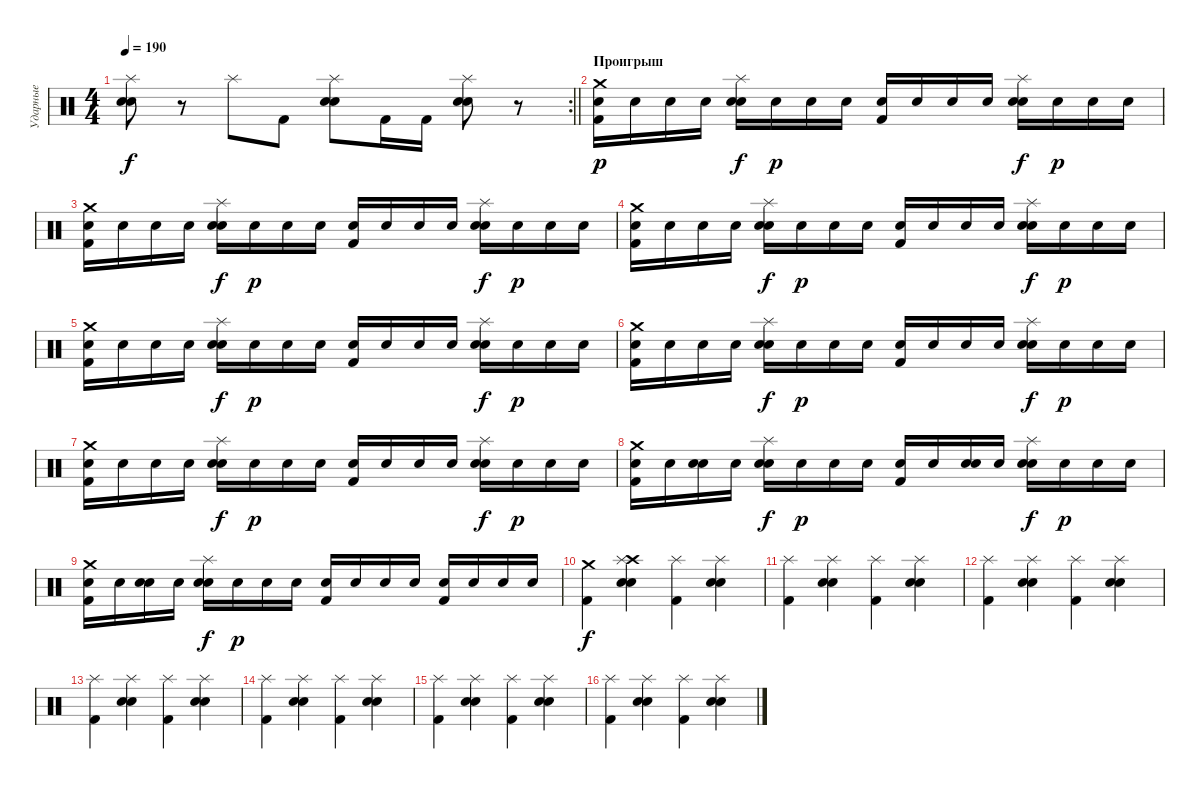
\track ("Ударные" "Ударные") {instrument percussion}
\staff {score}
\articulation defaults
\rc 2
\ts (4 4)
\tempo 190
\clef neutral
\barLineRight lightlight
\ks c
("Splash (hit)" "Electric Snare (hit)" "Snare (hit) 2").8{dy f} r.8 "Splash (hit)".8 "Kick (hit) 2".8 ("Splash (hit)" "Electric Snare (hit)" "Snare (hit) 2").8 "Kick (hit) 2".16 "Kick (hit) 2".16 ("Splash (hit)" "Electric Snare (hit)" "Snare (hit) 2").8 r.8 |
\section ("" "Проигрыш")
("Crash medium (hit)" "Electric Snare (hit)" "Kick (hit) 2").16{dy p} "Electric Snare (hit)".16 "Electric Snare (hit)".16 "Electric Snare (hit)".16 ("Splash (hit)" "Electric Snare (hit)" "Snare (hit) 2").16{dy f} "Electric Snare (hit)".16{dy p} "Electric Snare (hit)".16 "Electric Snare (hit)".16 ("Electric Snare (hit)" "Kick (hit) 2").16 "Electric Snare (hit)".16 "Electric Snare (hit)".16 "Electric Snare (hit)".16 ("Splash (hit)" "Electric Snare (hit)" "Snare (hit) 2").16{dy f} "Electric Snare (hit)".16{dy p} "Electric Snare (hit)".16 "Electric Snare (hit)".16 |
("Crash medium (hit)" "Electric Snare (hit)" "Kick (hit) 2").16 "Electric Snare (hit)".16 "Electric Snare (hit)".16 "Electric Snare (hit)".16 ("Splash (hit)" "Electric Snare (hit)" "Snare (hit) 2").16{dy f} "Electric Snare (hit)".16{dy p} "Electric Snare (hit)".16 "Electric Snare (hit)".16 ("Electric Snare (hit)" "Kick (hit) 2").16 "Electric Snare (hit)".16 "Electric Snare (hit)".16 "Electric Snare (hit)".16 ("Splash (hit)" "Electric Snare (hit)" "Snare (hit) 2").16{dy f} "Electric Snare (hit)".16{dy p} "Electric Snare (hit)".16 "Electric Snare (hit)".16 |
("Crash medium (hit)" "Electric Snare (hit)" "Kick (hit) 2").16 "Electric Snare (hit)".16 "Electric Snare (hit)".16 "Electric Snare (hit)".16 ("Splash (hit)" "Electric Snare (hit)" "Snare (hit) 2").16{dy f} "Electric Snare (hit)".16{dy p} "Electric Snare (hit)".16 "Electric Snare (hit)".16 ("Electric Snare (hit)" "Kick (hit) 2").16 "Electric Snare (hit)".16 "Electric Snare (hit)".16 "Electric Snare (hit)".16 ("Splash (hit)" "Electric Snare (hit)" "Snare (hit) 2").16{dy f} "Electric Snare (hit)".16{dy p} "Electric Snare (hit)".16 "Electric Snare (hit)".16 |
("Crash medium (hit)" "Electric Snare (hit)" "Kick (hit) 2").16 "Electric Snare (hit)".16 "Electric Snare (hit)".16 "Electric Snare (hit)".16 ("Splash (hit)" "Electric Snare (hit)" "Snare (hit) 2").16{dy f} "Electric Snare (hit)".16{dy p} "Electric Snare (hit)".16 "Electric Snare (hit)".16 ("Electric Snare (hit)" "Kick (hit) 2").16 "Electric Snare (hit)".16 "Electric Snare (hit)".16 "Electric Snare (hit)".16 ("Splash (hit)" "Electric Snare (hit)" "Snare (hit) 2").16{dy f} "Electric Snare (hit)".16{dy p} "Electric Snare (hit)".16 "Electric Snare (hit)".16 |
("Crash medium (hit)" "Electric Snare (hit)" "Kick (hit) 2").16 "Electric Snare (hit)".16 "Electric Snare (hit)".16 "Electric Snare (hit)".16 ("Splash (hit)" "Electric Snare (hit)" "Snare (hit) 2").16{dy f} "Electric Snare (hit)".16{dy p} "Electric Snare (hit)".16 "Electric Snare (hit)".16 ("Electric Snare (hit)" "Kick (hit) 2").16 "Electric Snare (hit)".16 "Electric Snare (hit)".16 "Electric Snare (hit)".16 ("Splash (hit)" "Electric Snare (hit)" "Snare (hit) 2").16{dy f} "Electric Snare (hit)".16{dy p} "Electric Snare (hit)".16 "Electric Snare (hit)".16 |
("Crash medium (hit)" "Electric Snare (hit)" "Kick (hit) 2").16 "Electric Snare (hit)".16 "Electric Snare (hit)".16 "Electric Snare (hit)".16 ("Splash (hit)" "Electric Snare (hit)" "Snare (hit) 2").16{dy f} "Electric Snare (hit)".16{dy p} "Electric Snare (hit)".16 "Electric Snare (hit)".16 ("Electric Snare (hit)" "Kick (hit) 2").16 "Electric Snare (hit)".16 "Electric Snare (hit)".16 "Electric Snare (hit)".16 ("Splash (hit)" "Electric Snare (hit)" "Snare (hit) 2").16{dy f} "Electric Snare (hit)".16{dy p} "Electric Snare (hit)".16 "Electric Snare (hit)".16 |
("Crash medium (hit)" "Electric Snare (hit)" "Kick (hit) 2").16 "Electric Snare (hit)".16 ("Electric Snare (hit)" "Snare (hit) 2").16 "Electric Snare (hit)".16 ("Splash (hit)" "Electric Snare (hit)" "Snare (hit) 2").16{dy f} "Electric Snare (hit)".16{dy p} "Electric Snare (hit)".16 "Electric Snare (hit)".16 ("Electric Snare (hit)" "Kick (hit) 2").16 "Electric Snare (hit)".16 ("Electric Snare (hit)" "Snare (hit) 2").16 "Electric Snare (hit)".16 ("Splash (hit)" "Electric Snare (hit)" "Snare (hit) 2").16{dy f} "Electric Snare (hit)".16{dy p} "Electric Snare (hit)".16 "Electric Snare (hit)".16 |
("Crash medium (hit)" "Electric Snare (hit)" "Kick (hit) 2").16 "Electric Snare (hit)".16 ("Electric Snare (hit)" "Snare (hit) 2").16 "Electric Snare (hit)".16 ("Splash (hit)" "Electric Snare (hit)" "Snare (hit) 2").16{dy f} "Electric Snare (hit)".16{dy p} "Electric Snare (hit)".16 "Electric Snare (hit)".16 ("Electric Snare (hit)" "Kick (hit) 2").16 "Electric Snare (hit)".16 "Electric Snare (hit)".16 "Electric Snare (hit)".16 ("Electric Snare (hit)" "Kick (hit) 2").16 "Electric Snare (hit)".16 "Electric Snare (hit)".16 "Electric Snare (hit)".16 |
("Crash medium (hit)" "Kick (hit) 2").4{dy f} ("Crash high (hit)" "Splash (hit)" "Electric Snare (hit)" "Snare (hit) 2").4 ("Splash (hit)" "Kick (hit) 2").4 ("Splash (hit)" "Electric Snare (hit)" "Snare (hit) 2").4 |
("Splash (hit)" "Kick (hit) 2").4 ("Splash (hit)" "Electric Snare (hit)" "Snare (hit) 2").4 ("Splash (hit)" "Kick (hit) 2").4 ("Splash (hit)" "Electric Snare (hit)" "Snare (hit) 2").4 |
("Splash (hit)" "Kick (hit) 2").4 ("Splash (hit)" "Electric Snare (hit)" "Snare (hit) 2").4 ("Splash (hit)" "Kick (hit) 2").4 ("Splash (hit)" "Electric Snare (hit)" "Snare (hit) 2").4 |
("Splash (hit)" "Kick (hit) 2").4 ("Splash (hit)" "Electric Snare (hit)" "Snare (hit) 2").4 ("Splash (hit)" "Kick (hit) 2").4 ("Splash (hit)" "Electric Snare (hit)" "Snare (hit) 2").4 |
("Splash (hit)" "Kick (hit) 2").4 ("Splash (hit)" "Electric Snare (hit)" "Snare (hit) 2").4 ("Splash (hit)" "Kick (hit) 2").4 ("Splash (hit)" "Electric Snare (hit)" "Snare (hit) 2").4 |
("Splash (hit)" "Kick (hit) 2").4 ("Splash (hit)" "Electric Snare (hit)" "Snare (hit) 2").4 ("Splash (hit)" "Kick (hit) 2").4 ("Splash (hit)" "Electric Snare (hit)" "Snare (hit) 2").4 |
("Splash (hit)" "Kick (hit) 2").4 ("Splash (hit)" "Electric Snare (hit)" "Snare (hit) 2").4 ("Splash (hit)" "Kick (hit) 2").4 ("Splash (hit)" "Electric Snare (hit)" "Snare (hit) 2").4
